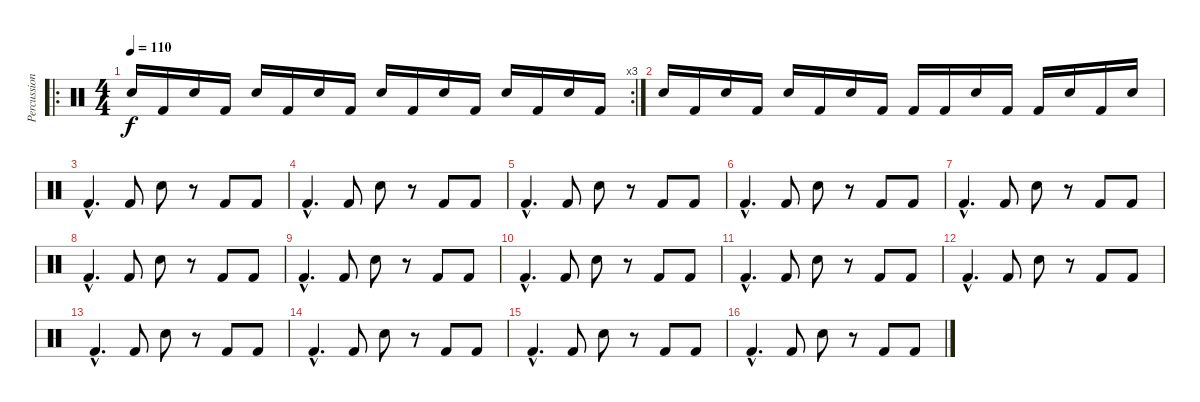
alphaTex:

\track ("Percussions" "Percussion") {instrument percussion}
\staff {score}
\articulation defaults
\ro
\rc 3
\ts (4 4)
\tempo 110
\clef neutral
\ks c "Electric Snare (hit)".16{dy f} "Kick (hit) 2".16 "Electric Snare (hit)".16 "Kick (hit) 2".16 "Electric Snare (hit)".16 "Kick (hit) 2".16 "Electric Snare (hit)".16 "Kick (hit) 2".16 "Electric Snare (hit)".16 "Kick (hit) 2".16 "Electric Snare (hit)".16 "Kick (hit) 2".16 "Electric Snare (hit)".16 "Kick (hit) 2".16 "Electric Snare (hit)".16 "Kick (hit) 2".16
|
"Electric Snare (hit)".16 "Kick (hit) 2".16 "Electric Snare (hit)".16 "Kick (hit) 2".16 "Electric Snare (hit)".16 "Kick (hit) 2".16 "Electric Snare (hit)".16 "Kick (hit) 2".16 "Kick (hit) 2".16 "Kick (hit) 2".16 "Electric Snare (hit)".16 "Kick (hit) 2".16 "Kick (hit) 2".16 "Electric Snare (hit)".16 "Kick (hit) 2".16 "Electric Snare (hit)".16 |
"Kick (hit) 2"{hac}.4{d} "Kick (hit) 2".8 "Electric Snare (hit)".8 r.8 "Kick (hit) 2".8 "Kick (hit) 2".8 |
"Kick (hit) 2"{hac}.4{d} "Kick (hit) 2".8 "Electric Snare (hit)".8 r.8 "Kick (hit) 2".8 "Kick (hit) 2".8 |
"Kick (hit) 2"{hac}.4{d} "Kick (hit) 2".8 "Electric Snare (hit)".8 r.8 "Kick (hit) 2".8 "Kick (hit) 2".8 |
"Kick (hit) 2"{hac}.4{d} "Kick (hit) 2".8 "Electric Snare (hit)".8 r.8 "Kick (hit) 2".8 "Kick (hit) 2".8 |
"Kick (hit) 2"{hac}.4{d} "Kick (hit) 2".8 "Electric Snare (hit)".8 r.8 "Kick (hit) 2".8 "Kick (hit) 2".8 |
"Kick (hit) 2"{hac}.4{d} "Kick (hit) 2".8 "Electric Snare (hit)".8 r.8 "Kick (hit) 2".8 "Kick (hit) 2".8 |
"Kick (hit) 2"{hac}.4{d} "Kick (hit) 2".8 "Electric Snare (hit)".8 r.8 "Kick (hit) 2".8 "Kick (hit) 2".8 |
"Kick (hit) 2"{hac}.4{d} "Kick (hit) 2".8 "Electric Snare (hit)".8 r.8 "Kick (hit) 2".8 "Kick (hit) 2".8 |
"Kick (hit) 2"{hac}.4{d} "Kick (hit) 2".8 "Electric Snare (hit)".8 r.8 "Kick (hit) 2".8 "Kick (hit) 2".8 |
"Kick (hit) 2"{hac}.4{d} "Kick (hit) 2".8 "Electric Snare (hit)".8 r.8 "Kick (hit) 2".8 "Kick (hit) 2".8 |
"Kick (hit) 2"{hac}.4{d} "Kick (hit) 2".8 "Electric Snare (hit)".8 r.8 "Kick (hit) 2".8 "Kick (hit) 2".8 |
"Kick (hit) 2"{hac}.4{d} "Kick (hit) 2".8 "Electric Snare (hit)".8 r.8 "Kick (hit) 2".8 "Kick (hit) 2".8 |
"Kick (hit) 2"{hac}.4{d} "Kick (hit) 2".8 "Electric Snare (hit)".8 r.8 "Kick (hit) 2".8 "Kick (hit) 2".8 |
"Kick (hit) 2"{hac}.4{d} "Kick (hit) 2".8 "Electric Snare (hit)".8 r.8 "Kick (hit) 2".8 "Kick (hit) 2".8
